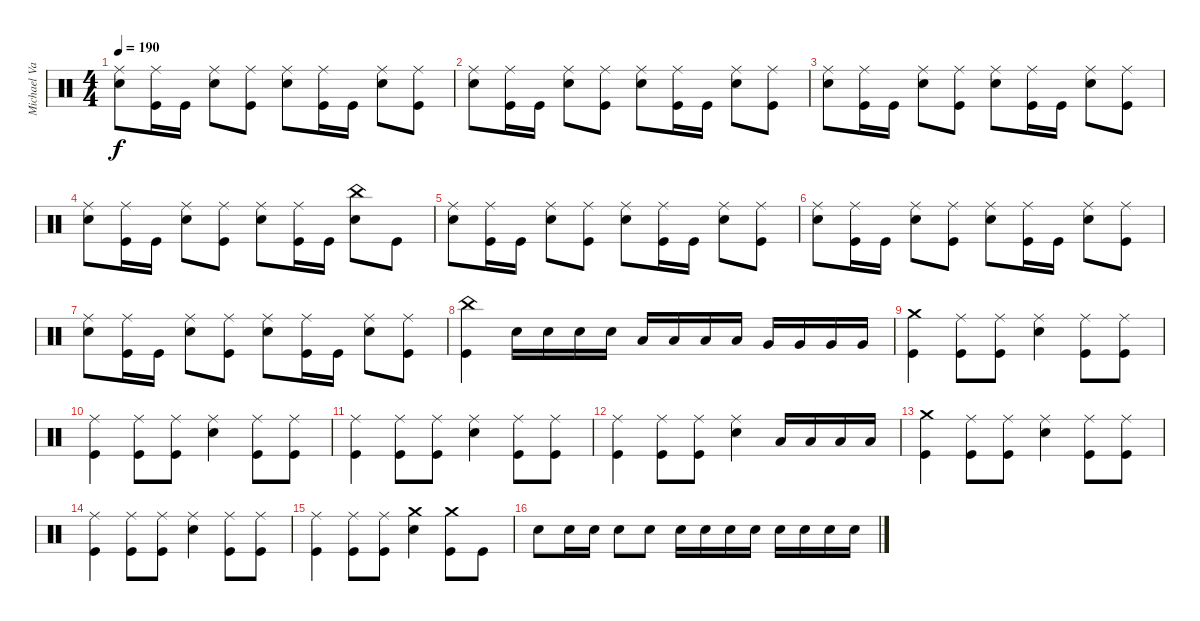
\track ("Michael VanDyne" "Michael Va") {instrument percussion}
\staff {score}
\articulation defaults
\ts (4 4)
\tempo 190
\clef neutral
\ks c
("Ride (middle)" "Electric Snare (hit)").8{dy f} ("Ride (middle)" "Kick (hit)").16 "Kick (hit)".16 ("Ride (middle)" "Electric Snare (hit)").8 ("Ride (middle)" "Kick (hit)").8 ("Ride (middle)" "Electric Snare (hit)").8 ("Ride (middle)" "Kick (hit)").16 "Kick (hit)".16 ("Ride (middle)" "Electric Snare (hit)").8 ("Ride (middle)" "Kick (hit)").8 |
("Ride (middle)" "Electric Snare (hit)").8 ("Ride (middle)" "Kick (hit)").16 "Kick (hit)".16 ("Ride (middle)" "Electric Snare (hit)").8 ("Ride (middle)" "Kick (hit)").8 ("Ride (middle)" "Electric Snare (hit)").8 ("Ride (middle)" "Kick (hit)").16 "Kick (hit)".16 ("Ride (middle)" "Electric Snare (hit)").8 ("Ride (middle)" "Kick (hit)").8 |
("Ride (middle)" "Electric Snare (hit)").8 ("Ride (middle)" "Kick (hit)").16 "Kick (hit)".16 ("Ride (middle)" "Electric Snare (hit)").8 ("Ride (middle)" "Kick (hit)").8 ("Ride (middle)" "Electric Snare (hit)").8 ("Ride (middle)" "Kick (hit)").16 "Kick (hit)".16 ("Ride (middle)" "Electric Snare (hit)").8 ("Ride (middle)" "Kick (hit)").8 |
("Ride (middle)" "Electric Snare (hit)").8 ("Ride (middle)" "Kick (hit)").16 "Kick (hit)".16 ("Ride (middle)" "Electric Snare (hit)").8 ("Ride (middle)" "Kick (hit)").8 ("Ride (middle)" "Electric Snare (hit)").8 ("Ride (middle)" "Kick (hit)").16 "Kick (hit)".16 ("China (hit)" "Electric Snare (hit)").8 "Kick (hit)".8 |
("Ride (middle)" "Electric Snare (hit)").8 ("Ride (middle)" "Kick (hit)").16 "Kick (hit)".16 ("Ride (middle)" "Electric Snare (hit)").8 ("Ride (middle)" "Kick (hit)").8 ("Ride (middle)" "Electric Snare (hit)").8 ("Ride (middle)" "Kick (hit)").16 "Kick (hit)".16 ("Ride (middle)" "Electric Snare (hit)").8 ("Ride (middle)" "Kick (hit)").8 |
("Ride (middle)" "Electric Snare (hit)").8 ("Ride (middle)" "Kick (hit)").16 "Kick (hit)".16 ("Ride (middle)" "Electric Snare (hit)").8 ("Ride (middle)" "Kick (hit)").8 ("Ride (middle)" "Electric Snare (hit)").8 ("Ride (middle)" "Kick (hit)").16 "Kick (hit)".16 ("Ride (middle)" "Electric Snare (hit)").8 ("Ride (middle)" "Kick (hit)").8 |
("Ride (middle)" "Electric Snare (hit)").8 ("Ride (middle)" "Kick (hit)").16 "Kick (hit)".16 ("Ride (middle)" "Electric Snare (hit)").8 ("Ride (middle)" "Kick (hit)").8 ("Ride (middle)" "Electric Snare (hit)").8 ("Ride (middle)" "Kick (hit)").16 "Kick (hit)".16 ("Ride (middle)" "Electric Snare (hit)").8 ("Ride (middle)" "Kick (hit)").8 |
("China (hit)" "Kick (hit)").4 "Electric Snare (hit)".16 "Electric Snare (hit)".16 "Electric Snare (hit)".16 "Electric Snare (hit)".16 "Low Tom (hit)".16 "Low Tom (hit)".16 "Low Tom (hit)".16 "Low Tom (hit)".16 "Very Low Tom (hit)".16 "Very Low Tom (hit)".16 "Very Low Tom (hit)".16 "Very Low Tom (hit)".16 |
("Crash medium (hit)" "Kick (hit)").4 ("Ride (middle)" "Kick (hit)").8 ("Ride (middle)" "Kick (hit)").8 ("Ride (middle)" "Electric Snare (hit)").4 ("Ride (middle)" "Kick (hit)").8 ("Ride (middle)" "Kick (hit)").8 |
("Ride (middle)" "Kick (hit)").4 ("Ride (middle)" "Kick (hit)").8 ("Ride (middle)" "Kick (hit)").8 ("Ride (middle)" "Electric Snare (hit)").4 ("Ride (middle)" "Kick (hit)").8 ("Ride (middle)" "Kick (hit)").8 |
("Ride (middle)" "Kick (hit)").4 ("Ride (middle)" "Kick (hit)").8 ("Ride (middle)" "Kick (hit)").8 ("Ride (middle)" "Electric Snare (hit)").4 ("Ride (middle)" "Kick (hit)").8 ("Ride (middle)" "Kick (hit)").8 |
("Ride (middle)" "Kick (hit)").4 ("Ride (middle)" "Kick (hit)").8 ("Ride (middle)" "Kick (hit)").8 ("Ride (middle)" "Electric Snare (hit)").4 "Low Tom (hit)".16 "Low Tom (hit)".16 "Low Tom (hit)".16 "Low Tom (hit)".16 |
("Crash medium (hit)" "Kick (hit)").4 ("Ride (middle)" "Kick (hit)").8 ("Ride (middle)" "Kick (hit)").8 ("Ride (middle)" "Electric Snare (hit)").4 ("Ride (middle)" "Kick (hit)").8 ("Ride (middle)" "Kick (hit)").8 |
("Ride (middle)" "Kick (hit)").4 ("Ride (middle)" "Kick (hit)").8 ("Ride (middle)" "Kick (hit)").8 ("Ride (middle)" "Electric Snare (hit)").4 ("Ride (middle)" "Kick (hit)").8 ("Ride (middle)" "Kick (hit)").8 |
("Ride (middle)" "Kick (hit)").4 ("Ride (middle)" "Kick (hit)").8 ("Ride (middle)" "Kick (hit)").8 ("Crash medium (hit)" "Electric Snare (hit)").4 ("Crash medium (hit)" "Kick (hit)").8 "Kick (hit)".8 |
"Electric Snare (hit)".8 "Electric Snare (hit)".16 "Electric Snare (hit)".16 "Electric Snare (hit)".8 "Electric Snare (hit)".8 "Electric Snare (hit)".16 "Electric Snare (hit)".16 "Electric Snare (hit)".16 "Electric Snare (hit)".16 "Electric Snare (hit)".16 "Electric Snare (hit)".16 "Electric Snare (hit)".16 "Electric Snare (hit)".16
